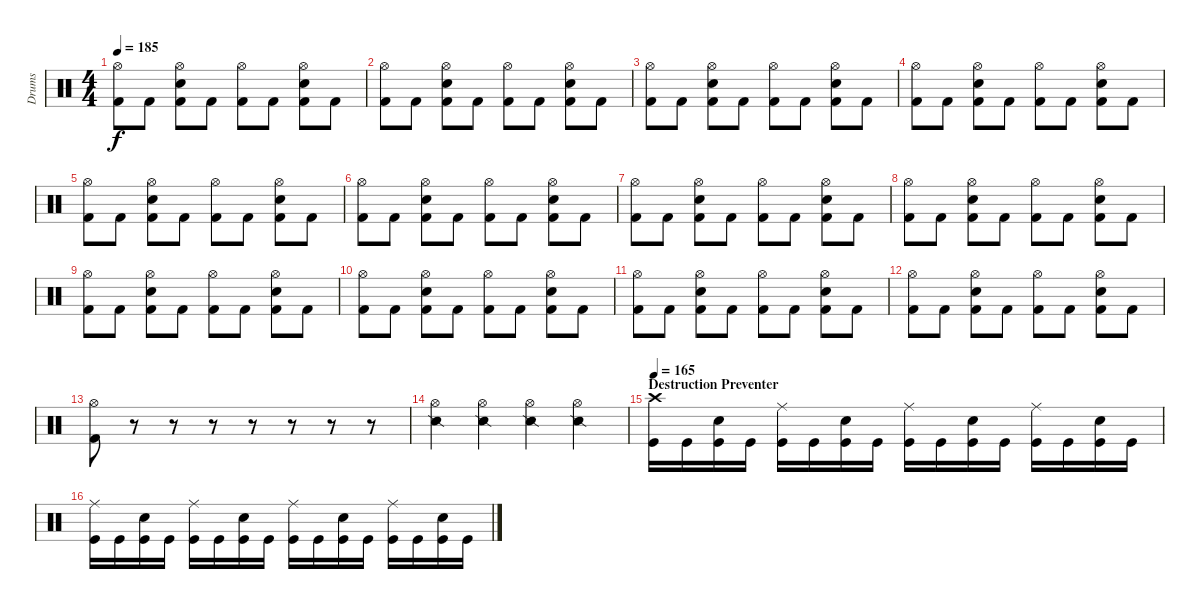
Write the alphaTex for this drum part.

\track ("Drums" "Drums") {instrument percussion}
\staff {score}
\articulation defaults
\ts (4 4)
\tempo 185
\clef neutral
\ks c
("Hi-Hat (open)" "Kick (hit) 2").8{dy f} "Kick (hit) 2".8 ("Hi-Hat (open)" "Snare (hit) 2" "Kick (hit) 2").8 "Kick (hit) 2".8 ("Hi-Hat (open)" "Kick (hit) 2").8 "Kick (hit) 2".8 ("Hi-Hat (open)" "Snare (hit) 2" "Kick (hit) 2").8 "Kick (hit) 2".8 |
("Hi-Hat (open)" "Kick (hit) 2").8 "Kick (hit) 2".8 ("Hi-Hat (open)" "Snare (hit) 2" "Kick (hit) 2").8 "Kick (hit) 2".8 ("Hi-Hat (open)" "Kick (hit) 2").8 "Kick (hit) 2".8 ("Hi-Hat (open)" "Snare (hit) 2" "Kick (hit) 2").8 "Kick (hit) 2".8 |
("Hi-Hat (open)" "Kick (hit) 2").8 "Kick (hit) 2".8 ("Hi-Hat (open)" "Snare (hit) 2" "Kick (hit) 2").8 "Kick (hit) 2".8 ("Hi-Hat (open)" "Kick (hit) 2").8 "Kick (hit) 2".8 ("Hi-Hat (open)" "Snare (hit) 2" "Kick (hit) 2").8 "Kick (hit) 2".8 |
("Hi-Hat (open)" "Kick (hit) 2").8 "Kick (hit) 2".8 ("Hi-Hat (open)" "Snare (hit) 2" "Kick (hit) 2").8 "Kick (hit) 2".8 ("Hi-Hat (open)" "Kick (hit) 2").8 "Kick (hit) 2".8 ("Hi-Hat (open)" "Snare (hit) 2" "Kick (hit) 2").8 "Kick (hit) 2".8 |
("Hi-Hat (open)" "Kick (hit) 2").8 "Kick (hit) 2".8 ("Hi-Hat (open)" "Snare (hit) 2" "Kick (hit) 2").8 "Kick (hit) 2".8 ("Hi-Hat (open)" "Kick (hit) 2").8 "Kick (hit) 2".8 ("Hi-Hat (open)" "Snare (hit) 2" "Kick (hit) 2").8 "Kick (hit) 2".8 |
("Hi-Hat (open)" "Kick (hit) 2").8 "Kick (hit) 2".8 ("Hi-Hat (open)" "Snare (hit) 2" "Kick (hit) 2").8 "Kick (hit) 2".8 ("Hi-Hat (open)" "Kick (hit) 2").8 "Kick (hit) 2".8 ("Hi-Hat (open)" "Snare (hit) 2" "Kick (hit) 2").8 "Kick (hit) 2".8 |
("Hi-Hat (open)" "Kick (hit) 2").8 "Kick (hit) 2".8 ("Hi-Hat (open)" "Snare (hit) 2" "Kick (hit) 2").8 "Kick (hit) 2".8 ("Hi-Hat (open)" "Kick (hit) 2").8 "Kick (hit) 2".8 ("Hi-Hat (open)" "Snare (hit) 2" "Kick (hit) 2").8 "Kick (hit) 2".8 |
("Hi-Hat (open)" "Kick (hit) 2").8 "Kick (hit) 2".8 ("Hi-Hat (open)" "Snare (hit) 2" "Kick (hit) 2").8 "Kick (hit) 2".8 ("Hi-Hat (open)" "Kick (hit) 2").8 "Kick (hit) 2".8 ("Hi-Hat (open)" "Snare (hit) 2" "Kick (hit) 2").8 "Kick (hit) 2".8 |
("Hi-Hat (open)" "Kick (hit) 2").8 "Kick (hit) 2".8 ("Hi-Hat (open)" "Snare (hit) 2" "Kick (hit) 2").8 "Kick (hit) 2".8 ("Hi-Hat (open)" "Kick (hit) 2").8 "Kick (hit) 2".8 ("Hi-Hat (open)" "Snare (hit) 2" "Kick (hit) 2").8 "Kick (hit) 2".8 |
("Hi-Hat (open)" "Kick (hit) 2").8 "Kick (hit) 2".8 ("Hi-Hat (open)" "Snare (hit) 2" "Kick (hit) 2").8 "Kick (hit) 2".8 ("Hi-Hat (open)" "Kick (hit) 2").8 "Kick (hit) 2".8 ("Hi-Hat (open)" "Snare (hit) 2" "Kick (hit) 2").8 "Kick (hit) 2".8 |
("Hi-Hat (open)" "Kick (hit) 2").8 "Kick (hit) 2".8 ("Hi-Hat (open)" "Snare (hit) 2" "Kick (hit) 2").8 "Kick (hit) 2".8 ("Hi-Hat (open)" "Kick (hit) 2").8 "Kick (hit) 2".8 ("Hi-Hat (open)" "Snare (hit) 2" "Kick (hit) 2").8 "Kick (hit) 2".8 |
("Hi-Hat (open)" "Kick (hit) 2").8 "Kick (hit) 2".8 ("Hi-Hat (open)" "Snare (hit) 2" "Kick (hit) 2").8 "Kick (hit) 2".8 ("Hi-Hat (open)" "Kick (hit) 2").8 "Kick (hit) 2".8 ("Hi-Hat (open)" "Snare (hit) 2" "Kick (hit) 2").8 "Kick (hit) 2".8 |
("Hi-Hat (open)" "Kick (hit) 2").8 r.8 r.8 r.8 r.8 r.8 r.8 r.8 |
("Snare (side stick) 2" "Hi-Hat (open)").4 ("Snare (side stick) 2" "Hi-Hat (open)").4 ("Snare (side stick) 2" "Hi-Hat (open)").4 ("Snare (side stick) 2" "Hi-Hat (open)").4 |
\section ("" "Destruction Preventer")
\tempo 165
("Crash high (hit)" "Kick (hit)").16{volume 14 balance 8} "Kick (hit)".16 ("Electric Snare (hit)" "Kick (hit)").16 "Kick (hit)".16 ("Ride (middle)" "Kick (hit)").16 "Kick (hit)".16 ("Electric Snare (hit)" "Kick (hit)").16 "Kick (hit)".16 ("Ride (middle)" "Kick (hit)").16 "Kick (hit)".16 ("Electric Snare (hit)" "Kick (hit)").16 "Kick (hit)".16 ("Ride (middle)" "Kick (hit)").16 "Kick (hit)".16 ("Electric Snare (hit)" "Kick (hit)").16 "Kick (hit)".16 |
("Ride (middle)" "Kick (hit)").16 "Kick (hit)".16 ("Electric Snare (hit)" "Kick (hit)").16 "Kick (hit)".16 ("Ride (middle)" "Kick (hit)").16 "Kick (hit)".16 ("Electric Snare (hit)" "Kick (hit)").16 "Kick (hit)".16 ("Ride (middle)" "Kick (hit)").16 "Kick (hit)".16 ("Electric Snare (hit)" "Kick (hit)").16 "Kick (hit)".16 ("Ride (middle)" "Kick (hit)").16 "Kick (hit)".16 ("Electric Snare (hit)" "Kick (hit)").16 "Kick (hit)".16
